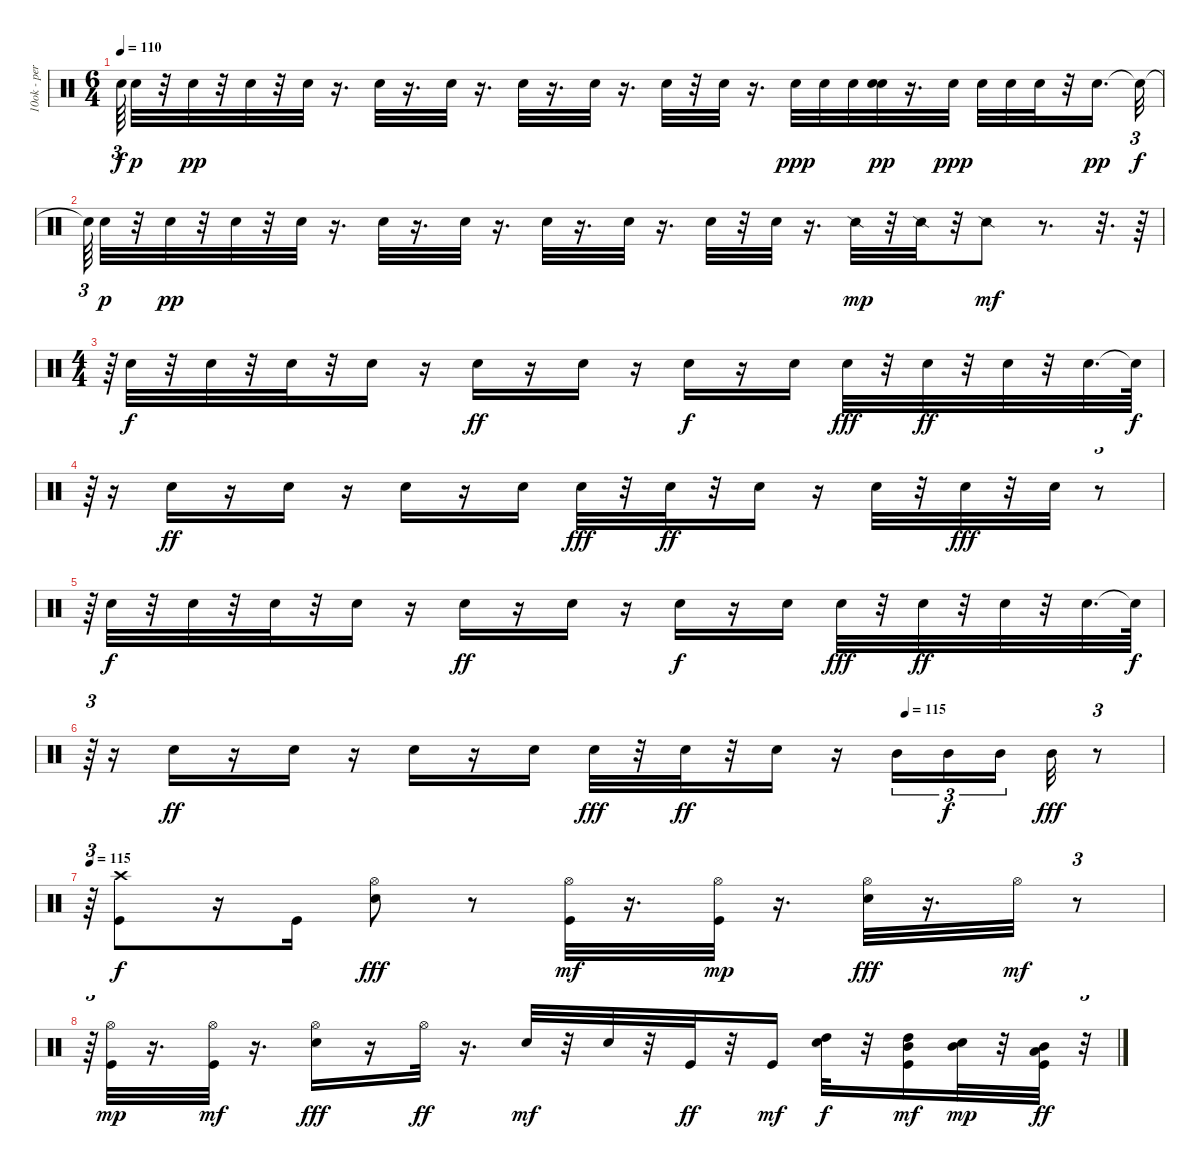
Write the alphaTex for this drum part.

\track ("10ok - percussioni" "10ok - per") {instrument percussion}
\staff {score}
\articulation defaults
\ts (6 4)
\tempo 110
\clef neutral
\ks c "Snare (hit)"{t}.64{tu (3 2) dy f} "Snare (hit) 2".32{dy p}
r.32 "Snare (hit) 2".32{dy pp} r.32 "Snare (hit) 2".32 r.32 "Snare (hit) 2".32 r.16{d} "Snare (hit) 2".32 r.16{d} "Snare (hit) 2".32 r.16{d} "Snare (hit) 2".32 r.16{d} "Snare (hit) 2".32 r.16{d} "Snare (hit) 2".32 r.32 "Snare (hit) 2".32 r.16{d} "Snare (hit) 2".32{dy ppp} "Snare (hit) 2".32 "Snare (hit) 2".32 ("Snare (hit) 2" "Snare (hit) 2").32{dy pp} r.16{d} "Snare (hit) 2".32{dy ppp} "Snare (hit) 2".32 "Snare (hit) 2".32 "Snare (hit) 2".32 r.32 "Snare (hit) 2".16{d dy pp} "Snare (hit)"{t}.32{tu (3 2) dy f} |
"Snare (hit)"{t}.64{tu (3 2)} "Snare (hit) 2".32{dy p} r.32 "Snare (hit) 2".32{dy pp} r.32 "Snare (hit) 2".32 r.32 "Snare (hit) 2".32 r.16{d} "Snare (hit) 2".32 r.16{d} "Snare (hit) 2".32 r.16{d} "Snare (hit) 2".32 r.16{d} "Snare (hit) 2".32 r.16{d} "Snare (hit) 2".32 r.32 "Snare (hit) 2".32 r.16{d} "Snare (side stick) 2".32{dy mp} r.32 "Snare (side stick) 2".32 r.32 "Snare (side stick) 2".8{dy mf} r.8{d} r.32{d} r.64 |
\ts (4 4)
r.64{tu (3 2)} "Snare (hit) 2".32{dy f} r.32 "Snare (hit) 2".32 r.32 "Snare (hit) 2".32 r.32 "Snare (hit) 2".16 r.16 "Snare (hit) 2".16{dy ff} r.16 "Snare (hit) 2".16 r.16 "Snare (hit) 2".16{dy f} r.16 "Snare (hit) 2".16 "Snare (hit) 2".32{dy fff} r.32 "Snare (hit) 2".32{dy ff} r.32 "Snare (hit) 2".32 r.32 "Snare (hit) 2".32{d} "Snare (hit)"{t}.64{dy f} |
r.64{tu (3 2)} r.16 "Snare (hit) 2".16{dy ff} r.16 "Snare (hit) 2".16 r.16 "Snare (hit) 2".16 r.16 "Snare (hit) 2".16 "Snare (hit) 2".32{dy fff} r.32 "Snare (hit) 2".32{dy ff} r.32 "Snare (hit) 2".16 r.16 "Snare (hit) 2".32 r.32 "Snare (hit) 2".32{dy fff} r.32 "Snare (hit) 2".32 r.8{tu (3 2)} |
r.64{tu (3 2)} "Snare (hit) 2".32{dy f} r.32 "Snare (hit) 2".32 r.32 "Snare (hit) 2".32 r.32 "Snare (hit) 2".16 r.16 "Snare (hit) 2".16{dy ff} r.16 "Snare (hit) 2".16 r.16 "Snare (hit) 2".16{dy f} r.16 "Snare (hit) 2".16 "Snare (hit) 2".32{dy fff} r.32 "Snare (hit) 2".32{dy ff} r.32 "Snare (hit) 2".32 r.32 "Snare (hit) 2".32{d} "Snare (hit)"{t}.64{dy f} |
\tempo (115 0.7604166666666666)
r.64{tu (3 2)} r.16 "Snare (hit) 2".16{dy ff} r.16 "Snare (hit) 2".16 r.16 "Snare (hit) 2".16 r.16 "Snare (hit) 2".16 "Snare (hit) 2".32{dy fff} r.32 "Snare (hit) 2".32{dy ff} r.32 "Snare (hit) 2".16 r.16 "Mid Tom (hit)".16{tu (3 2)} "Mid Tom (hit)".16{tu (3 2) dy f} "Mid Tom (hit)".16{tu (3 2) beam splitsecondary} "Mid Tom (hit)".32{dy fff} r.8{tu (3 2)} |
\tempo 115
r.64{tu (3 2)} ("Kick (hit)" "Crash high (hit)").8{dy f} r.16 "Kick (hit)".16 ("Snare (hit) 2" "Hi-Hat (open)").8{dy fff} r.8 ("Hi-Hat (open)" "Kick (hit)").32{dy mf} r.16{d} ("Hi-Hat (open)" "Kick (hit)").32{dy mp} r.16{d} ("Hi-Hat (open)" "Snare (hit) 2").32{dy fff} r.16{d} "Hi-Hat (open)".32{dy mf} r.8{tu (3 2)} |
r.64{tu (3 2)} ("Hi-Hat (open)" "Kick (hit)").32{dy mp} r.16{d} ("Hi-Hat (open)" "Kick (hit)").32{dy mf} r.16{d} ("Hi-Hat (open)" "Snare (hit) 2").16{dy fff} r.16 "Hi-Hat (open)".32{dy ff} r.16{d} "Snare (hit) 2".32{dy mf} r.32 "Snare (hit) 2".32 r.32 "Kick (hit)".32{dy ff} r.32 "Kick (hit)".16{dy mf} ("Snare (hit) 2" "High Tom (hit)").32{dy f} r.32 ("Kick (hit)" "Mid Tom (hit)" "High Tom (hit)").16{dy mf} ("Snare (hit) 2" "Mid Tom (hit)").32{dy mp} r.32 ("Mid Tom (hit)" "Low Tom (hit)" "Kick (hit)").32{dy ff} r.32{tu (3 2)}
